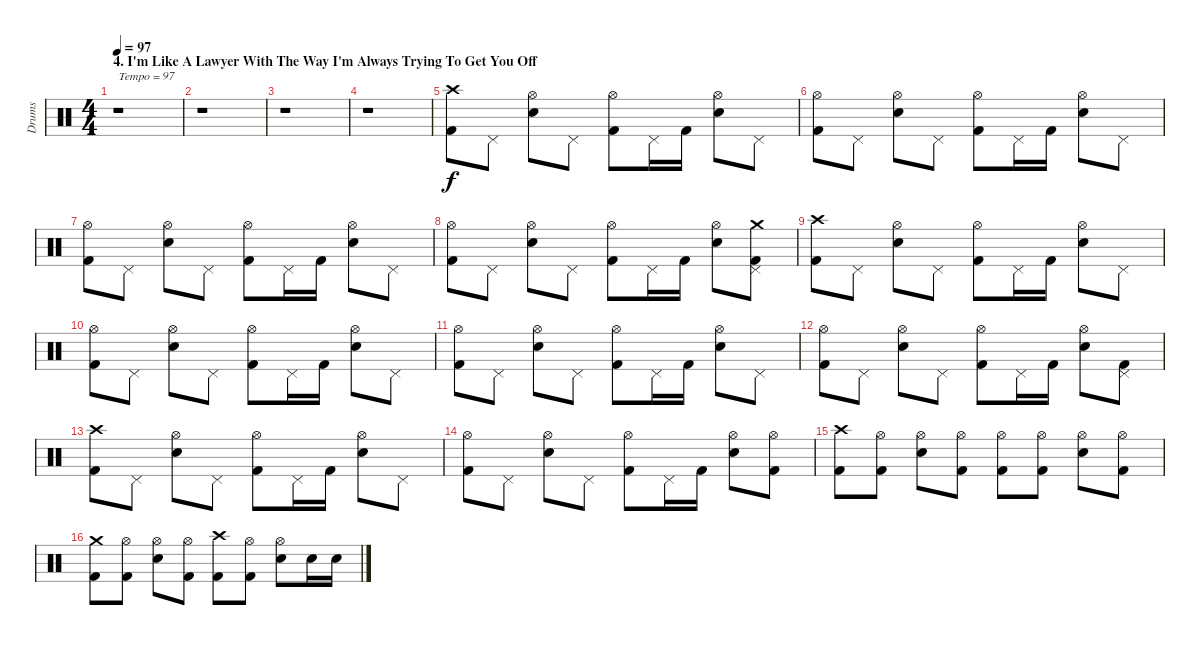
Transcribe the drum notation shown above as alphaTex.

\track ("Drums" "Drums") {instrument percussion}
\staff {score}
\articulation defaults
\ts (4 4)
\section ("" "4. I'm Like A Lawyer With The Way I'm Always Trying To Get You Off")
\tempo 97
\clef neutral
\ks c
r.1{txt "Tempo = 97" dy f} |
r.1 |
r.1 |
r.1 |
("Crash high (hit)" "Kick (hit) 2").8 "Pedal Hi-Hat (hit)".8 ("Hi-Hat (open)" "Snare (hit) 2").8 "Pedal Hi-Hat (hit)".8 ("Hi-Hat (open)" "Kick (hit) 2").8 "Pedal Hi-Hat (hit)".16 "Kick (hit) 2".16 ("Hi-Hat (open)" "Snare (hit) 2").8 "Pedal Hi-Hat (hit)".8 |
("Hi-Hat (open)" "Kick (hit) 2").8 "Pedal Hi-Hat (hit)".8 ("Hi-Hat (open)" "Snare (hit) 2").8 "Pedal Hi-Hat (hit)".8 ("Hi-Hat (open)" "Kick (hit) 2").8 "Pedal Hi-Hat (hit)".16 "Kick (hit) 2".16 ("Hi-Hat (open)" "Snare (hit) 2").8 "Pedal Hi-Hat (hit)".8 |
("Hi-Hat (open)" "Kick (hit) 2").8 "Pedal Hi-Hat (hit)".8 ("Hi-Hat (open)" "Snare (hit) 2").8 "Pedal Hi-Hat (hit)".8 ("Hi-Hat (open)" "Kick (hit) 2").8 "Pedal Hi-Hat (hit)".16 "Kick (hit) 2".16 ("Hi-Hat (open)" "Snare (hit) 2").8 "Pedal Hi-Hat (hit)".8 |
("Hi-Hat (open)" "Kick (hit) 2").8 "Pedal Hi-Hat (hit)".8 ("Hi-Hat (open)" "Snare (hit) 2").8 "Pedal Hi-Hat (hit)".8 ("Hi-Hat (open)" "Kick (hit) 2").8 "Pedal Hi-Hat (hit)".16 "Kick (hit) 2".16 ("Hi-Hat (open)" "Snare (hit) 2").8 ("Crash medium (hit)" "Pedal Hi-Hat (hit)" "Kick (hit) 2").8 |
("Crash high (hit)" "Kick (hit) 2").8 "Pedal Hi-Hat (hit)".8 ("Hi-Hat (open)" "Snare (hit) 2").8 "Pedal Hi-Hat (hit)".8 ("Hi-Hat (open)" "Kick (hit) 2").8 "Pedal Hi-Hat (hit)".16 "Kick (hit) 2".16 ("Hi-Hat (open)" "Snare (hit) 2").8 "Pedal Hi-Hat (hit)".8 |
("Hi-Hat (open)" "Kick (hit) 2").8 "Pedal Hi-Hat (hit)".8 ("Hi-Hat (open)" "Snare (hit) 2").8 "Pedal Hi-Hat (hit)".8 ("Hi-Hat (open)" "Kick (hit) 2").8 "Pedal Hi-Hat (hit)".16 "Kick (hit) 2".16 ("Hi-Hat (open)" "Snare (hit) 2").8 "Pedal Hi-Hat (hit)".8 |
("Hi-Hat (open)" "Kick (hit) 2").8 "Pedal Hi-Hat (hit)".8 ("Hi-Hat (open)" "Snare (hit) 2").8 "Pedal Hi-Hat (hit)".8 ("Hi-Hat (open)" "Kick (hit) 2").8 "Pedal Hi-Hat (hit)".16 "Kick (hit) 2".16 ("Hi-Hat (open)" "Snare (hit) 2").8 "Pedal Hi-Hat (hit)".8 |
("Hi-Hat (open)" "Kick (hit) 2").8 "Pedal Hi-Hat (hit)".8 ("Hi-Hat (open)" "Snare (hit) 2").8 "Pedal Hi-Hat (hit)".8 ("Hi-Hat (open)" "Kick (hit) 2").8 "Pedal Hi-Hat (hit)".16 "Kick (hit) 2".16 ("Hi-Hat (open)" "Snare (hit) 2").8 ("Pedal Hi-Hat (hit)" "Kick (hit) 2").8 |
("Crash high (hit)" "Kick (hit) 2").8 "Pedal Hi-Hat (hit)".8 ("Hi-Hat (open)" "Snare (hit) 2").8 "Pedal Hi-Hat (hit)".8 ("Hi-Hat (open)" "Kick (hit) 2").8 "Pedal Hi-Hat (hit)".16 "Kick (hit) 2".16 ("Hi-Hat (open)" "Snare (hit) 2").8 "Pedal Hi-Hat (hit)".8 |
("Hi-Hat (open)" "Kick (hit) 2").8 "Pedal Hi-Hat (hit)".8 ("Hi-Hat (open)" "Snare (hit) 2").8 "Pedal Hi-Hat (hit)".8 ("Hi-Hat (open)" "Kick (hit) 2").8 "Pedal Hi-Hat (hit)".16 "Kick (hit) 2".16 ("Hi-Hat (open)" "Snare (hit) 2").8 ("Hi-Hat (open)" "Kick (hit) 2").8 |
("Crash high (hit)" "Kick (hit) 2").8 ("Hi-Hat (open)" "Kick (hit) 2").8 ("Hi-Hat (open)" "Snare (hit) 2").8 ("Hi-Hat (open)" "Kick (hit) 2").8 ("Hi-Hat (open)" "Kick (hit) 2").8 ("Hi-Hat (open)" "Kick (hit) 2").8 ("Hi-Hat (open)" "Snare (hit) 2").8 ("Hi-Hat (open)" "Kick (hit) 2").8 |
("Crash medium (hit)" "Kick (hit) 2").8 ("Hi-Hat (open)" "Kick (hit) 2").8 ("Hi-Hat (open)" "Snare (hit) 2").8 ("Hi-Hat (open)" "Kick (hit) 2").8 ("Crash high (hit)" "Kick (hit) 2").8 ("Hi-Hat (open)" "Kick (hit) 2").8 ("Hi-Hat (open)" "Snare (hit) 2").8 "Snare (hit) 2".16 "Snare (hit) 2".16
